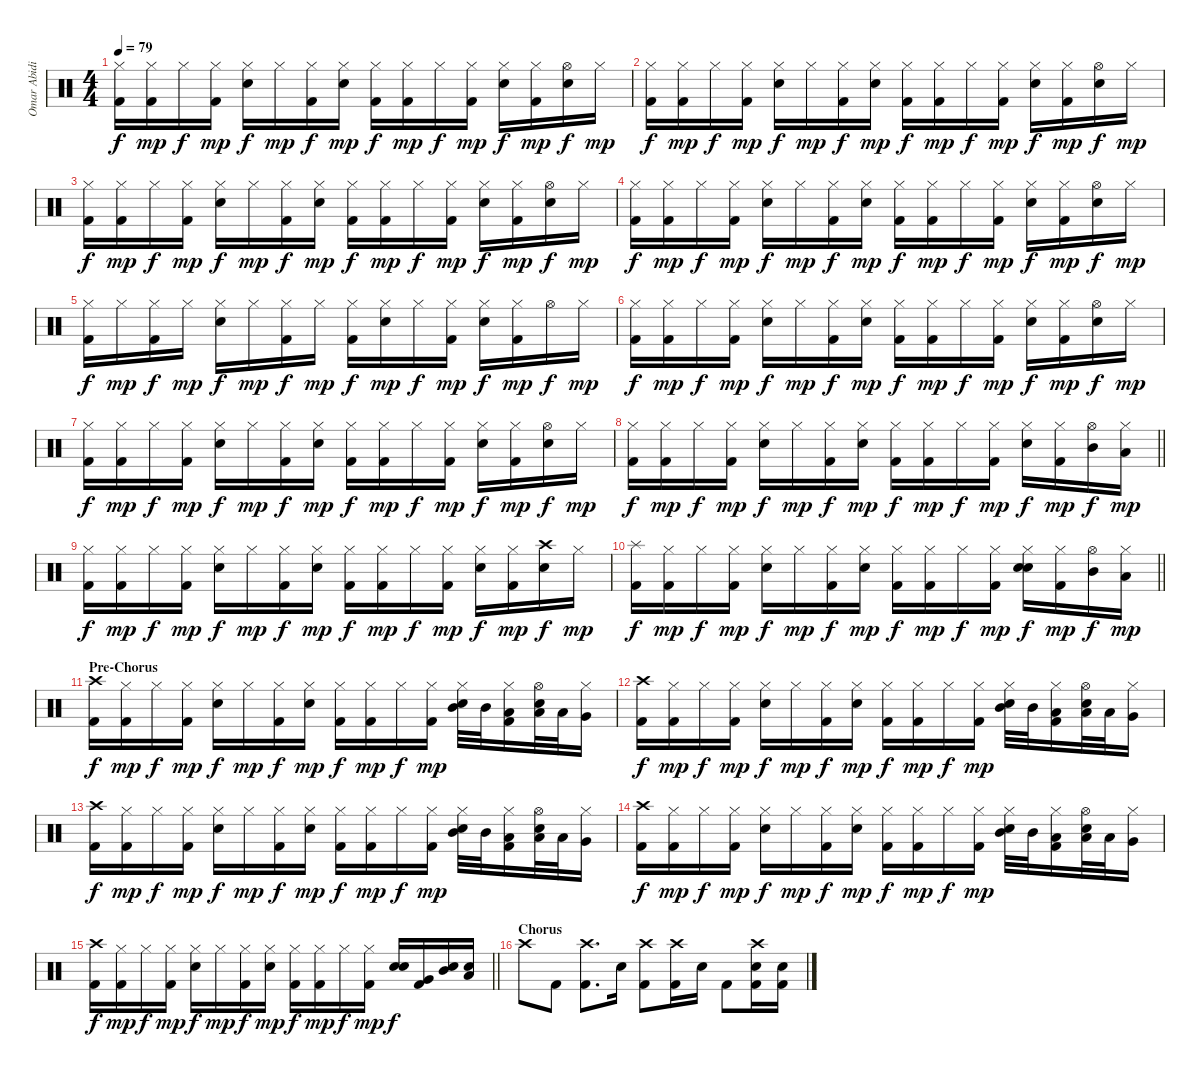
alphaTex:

\track ("Omar Abidi" "Omar Abidi") {instrument percussion}
\staff {score}
\articulation defaults
\ts (4 4)
\tempo 79
\clef neutral
\ks c
("Hi-Hat (closed)" "Kick (hit) 2").16{dy f} ("Hi-Hat (closed)" "Kick (hit) 2").16{dy mp} "Hi-Hat (closed)".16{dy f} ("Hi-Hat (closed)" "Kick (hit) 2").16{dy mp} ("Hi-Hat (closed)" "Electric Snare (hit)").16{dy f} "Hi-Hat (closed)".16{dy mp} ("Hi-Hat (closed)" "Kick (hit) 2").16{dy f} ("Hi-Hat (closed)" "Electric Snare (hit)").16{dy mp} ("Hi-Hat (closed)" "Kick (hit) 2").16{dy f} ("Hi-Hat (closed)" "Kick (hit) 2").16{dy mp} "Hi-Hat (closed)".16{dy f} ("Hi-Hat (closed)" "Kick (hit) 2").16{dy mp} ("Hi-Hat (closed)" "Electric Snare (hit)").16{dy f} ("Hi-Hat (closed)" "Kick (hit) 2").16{dy mp} ("Hi-Hat (open)" "Electric Snare (hit)").16{dy f} "Hi-Hat (closed)".16{dy mp} |
("Hi-Hat (closed)" "Kick (hit) 2").16{dy f} ("Hi-Hat (closed)" "Kick (hit) 2").16{dy mp} "Hi-Hat (closed)".16{dy f} ("Hi-Hat (closed)" "Kick (hit) 2").16{dy mp} ("Hi-Hat (closed)" "Electric Snare (hit)").16{dy f} "Hi-Hat (closed)".16{dy mp} ("Hi-Hat (closed)" "Kick (hit) 2").16{dy f} ("Hi-Hat (closed)" "Electric Snare (hit)").16{dy mp} ("Hi-Hat (closed)" "Kick (hit) 2").16{dy f} ("Hi-Hat (closed)" "Kick (hit) 2").16{dy mp} "Hi-Hat (closed)".16{dy f} ("Hi-Hat (closed)" "Kick (hit) 2").16{dy mp} ("Hi-Hat (closed)" "Electric Snare (hit)").16{dy f} ("Hi-Hat (closed)" "Kick (hit) 2").16{dy mp} ("Hi-Hat (open)" "Electric Snare (hit)").16{dy f} "Hi-Hat (closed)".16{dy mp} |
("Hi-Hat (closed)" "Kick (hit) 2").16{dy f} ("Hi-Hat (closed)" "Kick (hit) 2").16{dy mp} "Hi-Hat (closed)".16{dy f} ("Hi-Hat (closed)" "Kick (hit) 2").16{dy mp} ("Hi-Hat (closed)" "Electric Snare (hit)").16{dy f} "Hi-Hat (closed)".16{dy mp} ("Hi-Hat (closed)" "Kick (hit) 2").16{dy f} ("Hi-Hat (closed)" "Electric Snare (hit)").16{dy mp} ("Hi-Hat (closed)" "Kick (hit) 2").16{dy f} ("Hi-Hat (closed)" "Kick (hit) 2").16{dy mp} "Hi-Hat (closed)".16{dy f} ("Hi-Hat (closed)" "Kick (hit) 2").16{dy mp} ("Hi-Hat (closed)" "Electric Snare (hit)").16{dy f} ("Hi-Hat (closed)" "Kick (hit) 2").16{dy mp} ("Hi-Hat (open)" "Electric Snare (hit)").16{dy f} "Hi-Hat (closed)".16{dy mp} |
("Hi-Hat (closed)" "Kick (hit) 2").16{dy f} ("Hi-Hat (closed)" "Kick (hit) 2").16{dy mp} "Hi-Hat (closed)".16{dy f} ("Hi-Hat (closed)" "Kick (hit) 2").16{dy mp} ("Hi-Hat (closed)" "Electric Snare (hit)").16{dy f} "Hi-Hat (closed)".16{dy mp} ("Hi-Hat (closed)" "Kick (hit) 2").16{dy f} ("Hi-Hat (closed)" "Electric Snare (hit)").16{dy mp} ("Hi-Hat (closed)" "Kick (hit) 2").16{dy f} ("Hi-Hat (closed)" "Kick (hit) 2").16{dy mp} "Hi-Hat (closed)".16{dy f} ("Hi-Hat (closed)" "Kick (hit) 2").16{dy mp} ("Hi-Hat (closed)" "Electric Snare (hit)").16{dy f} ("Hi-Hat (closed)" "Kick (hit) 2").16{dy mp} ("Hi-Hat (open)" "Electric Snare (hit)").16{dy f} "Hi-Hat (closed)".16{dy mp} |
("Hi-Hat (closed)" "Kick (hit) 2").16{dy f} "Hi-Hat (closed)".16{dy mp} ("Hi-Hat (closed)" "Kick (hit) 2").16{dy f} "Hi-Hat (closed)".16{dy mp} ("Hi-Hat (closed)" "Electric Snare (hit)").16{dy f} "Hi-Hat (closed)".16{dy mp} ("Hi-Hat (closed)" "Kick (hit) 2").16{dy f} "Hi-Hat (closed)".16{dy mp} ("Hi-Hat (closed)" "Kick (hit) 2").16{dy f} ("Hi-Hat (closed)" "Electric Snare (hit)").16{dy mp} "Hi-Hat (closed)".16{dy f} ("Hi-Hat (closed)" "Kick (hit) 2").16{dy mp} ("Hi-Hat (closed)" "Electric Snare (hit)").16{dy f} ("Hi-Hat (closed)" "Kick (hit) 2").16{dy mp} "Hi-Hat (open)".16{dy f} "Hi-Hat (closed)".16{dy mp} |
("Hi-Hat (closed)" "Kick (hit) 2").16{dy f} ("Hi-Hat (closed)" "Kick (hit) 2").16{dy mp} "Hi-Hat (closed)".16{dy f} ("Hi-Hat (closed)" "Kick (hit) 2").16{dy mp} ("Hi-Hat (closed)" "Electric Snare (hit)").16{dy f} "Hi-Hat (closed)".16{dy mp} ("Hi-Hat (closed)" "Kick (hit) 2").16{dy f} ("Hi-Hat (closed)" "Electric Snare (hit)").16{dy mp} ("Hi-Hat (closed)" "Kick (hit) 2").16{dy f} ("Hi-Hat (closed)" "Kick (hit) 2").16{dy mp} "Hi-Hat (closed)".16{dy f} ("Hi-Hat (closed)" "Kick (hit) 2").16{dy mp} ("Hi-Hat (closed)" "Electric Snare (hit)").16{dy f} ("Hi-Hat (closed)" "Kick (hit) 2").16{dy mp} ("Hi-Hat (open)" "Electric Snare (hit)").16{dy f} "Hi-Hat (closed)".16{dy mp} |
("Hi-Hat (closed)" "Kick (hit) 2").16{dy f} ("Hi-Hat (closed)" "Kick (hit) 2").16{dy mp} "Hi-Hat (closed)".16{dy f} ("Hi-Hat (closed)" "Kick (hit) 2").16{dy mp} ("Hi-Hat (closed)" "Electric Snare (hit)").16{dy f} "Hi-Hat (closed)".16{dy mp} ("Hi-Hat (closed)" "Kick (hit) 2").16{dy f} ("Hi-Hat (closed)" "Electric Snare (hit)").16{dy mp} ("Hi-Hat (closed)" "Kick (hit) 2").16{dy f} ("Hi-Hat (closed)" "Kick (hit) 2").16{dy mp} "Hi-Hat (closed)".16{dy f} ("Hi-Hat (closed)" "Kick (hit) 2").16{dy mp} ("Hi-Hat (closed)" "Electric Snare (hit)").16{dy f} ("Hi-Hat (closed)" "Kick (hit) 2").16{dy mp} ("Hi-Hat (open)" "Electric Snare (hit)").16{dy f} "Hi-Hat (closed)".16{dy mp} |
\barLineRight lightlight
("Hi-Hat (closed)" "Kick (hit) 2").16{dy f} ("Hi-Hat (closed)" "Kick (hit) 2").16{dy mp} "Hi-Hat (closed)".16{dy f} ("Hi-Hat (closed)" "Kick (hit) 2").16{dy mp} ("Hi-Hat (closed)" "Electric Snare (hit)").16{dy f} "Hi-Hat (closed)".16{dy mp} ("Hi-Hat (closed)" "Kick (hit) 2").16{dy f} ("Hi-Hat (closed)" "Electric Snare (hit)").16{dy mp} ("Hi-Hat (closed)" "Kick (hit) 2").16{dy f} ("Hi-Hat (closed)" "Kick (hit) 2").16{dy mp} "Hi-Hat (closed)".16{dy f} ("Hi-Hat (closed)" "Kick (hit) 2").16{dy mp} ("Hi-Hat (closed)" "Electric Snare (hit)").16{dy f} ("Hi-Hat (closed)" "Kick (hit) 2").16{dy mp} ("Hi-Hat (open)" "Mid Tom (hit)").16{dy f} ("Hi-Hat (closed)" "Low Tom (hit)").16{dy mp} |
("Hi-Hat (closed)" "Kick (hit) 2").16{dy f} ("Hi-Hat (closed)" "Kick (hit) 2").16{dy mp} "Hi-Hat (closed)".16{dy f} ("Hi-Hat (closed)" "Kick (hit) 2").16{dy mp} ("Hi-Hat (closed)" "Electric Snare (hit)").16{dy f} "Hi-Hat (closed)".16{dy mp} ("Hi-Hat (closed)" "Kick (hit) 2").16{dy f} ("Hi-Hat (closed)" "Electric Snare (hit)").16{dy mp} ("Hi-Hat (closed)" "Kick (hit) 2").16{dy f} ("Hi-Hat (closed)" "Kick (hit) 2").16{dy mp} "Hi-Hat (closed)".16{dy f} ("Hi-Hat (closed)" "Kick (hit) 2").16{dy mp} ("Hi-Hat (closed)" "Electric Snare (hit)").16{dy f} ("Hi-Hat (closed)" "Kick (hit) 2").16{dy mp} ("Crash high (hit)" "Electric Snare (hit)").16{dy f} "Hi-Hat (closed)".16{dy mp} |
\barLineRight lightlight
("Splash (hit)" "Kick (hit) 2").16{dy f} ("Hi-Hat (closed)" "Kick (hit) 2").16{dy mp} "Hi-Hat (closed)".16{dy f} ("Hi-Hat (closed)" "Kick (hit) 2").16{dy mp} ("Hi-Hat (closed)" "Electric Snare (hit)").16{dy f} "Hi-Hat (closed)".16{dy mp} ("Hi-Hat (closed)" "Kick (hit) 2").16{dy f} ("Hi-Hat (closed)" "Electric Snare (hit)").16{dy mp} ("Hi-Hat (closed)" "Kick (hit) 2").16{dy f} ("Hi-Hat (closed)" "Kick (hit) 2").16{dy mp} "Hi-Hat (closed)".16{dy f} ("Hi-Hat (closed)" "Kick (hit) 2").16{dy mp} ("Hi-Hat (closed)" "Electric Snare (hit)" "Electric Snare (hit)").16{bd 240 dy f} ("Hi-Hat (closed)" "Kick (hit) 2").16{dy mp} ("Hi-Hat (open)" "Mid Tom (hit)").16{dy f} ("Hi-Hat (closed)" "Low Tom (hit)").16{dy mp} |
\section ("" "Pre-Chorus")
("Crash high (hit)" "Kick (hit) 2").16{dy f} ("Hi-Hat (closed)" "Kick (hit) 2").16{dy mp} "Hi-Hat (closed)".16{dy f} ("Hi-Hat (closed)" "Kick (hit) 2").16{dy mp} ("Hi-Hat (closed)" "Electric Snare (hit)").16{dy f} "Hi-Hat (closed)".16{dy mp} ("Hi-Hat (closed)" "Kick (hit) 2").16{dy f} ("Hi-Hat (closed)" "Electric Snare (hit)").16{dy mp} ("Hi-Hat (closed)" "Kick (hit) 2").16{dy f} ("Hi-Hat (closed)" "Kick (hit) 2").16{dy mp} "Hi-Hat (closed)".16{dy f} ("Hi-Hat (closed)" "Kick (hit) 2").16{dy mp} ("Hi-Hat (closed)" "Electric Snare (hit)" "Mid Tom (hit)").32 "Mid Tom (hit)".32 ("Hi-Hat (closed)" "Low Tom (hit)" "Kick (hit) 2").16 ("Hi-Hat (open)" "Electric Snare (hit)" "Low Tom (hit)").32 "Low Tom (hit)".32 ("Hi-Hat (closed)" "Very Low Tom (hit)").16 |
("Crash high (hit)" "Kick (hit) 2").16{dy f} ("Hi-Hat (closed)" "Kick (hit) 2").16{dy mp} "Hi-Hat (closed)".16{dy f} ("Hi-Hat (closed)" "Kick (hit) 2").16{dy mp} ("Hi-Hat (closed)" "Electric Snare (hit)").16{dy f} "Hi-Hat (closed)".16{dy mp} ("Hi-Hat (closed)" "Kick (hit) 2").16{dy f} ("Hi-Hat (closed)" "Electric Snare (hit)").16{dy mp} ("Hi-Hat (closed)" "Kick (hit) 2").16{dy f} ("Hi-Hat (closed)" "Kick (hit) 2").16{dy mp} "Hi-Hat (closed)".16{dy f} ("Hi-Hat (closed)" "Kick (hit) 2").16{dy mp} ("Hi-Hat (closed)" "Electric Snare (hit)" "Mid Tom (hit)").32 "Mid Tom (hit)".32 ("Hi-Hat (closed)" "Low Tom (hit)" "Kick (hit) 2").16 ("Hi-Hat (open)" "Electric Snare (hit)" "Low Tom (hit)").32 "Low Tom (hit)".32 ("Hi-Hat (closed)" "Very Low Tom (hit)").16 |
("Crash high (hit)" "Kick (hit) 2").16{dy f} ("Hi-Hat (closed)" "Kick (hit) 2").16{dy mp} "Hi-Hat (closed)".16{dy f} ("Hi-Hat (closed)" "Kick (hit) 2").16{dy mp} ("Hi-Hat (closed)" "Electric Snare (hit)").16{dy f} "Hi-Hat (closed)".16{dy mp} ("Hi-Hat (closed)" "Kick (hit) 2").16{dy f} ("Hi-Hat (closed)" "Electric Snare (hit)").16{dy mp} ("Hi-Hat (closed)" "Kick (hit) 2").16{dy f} ("Hi-Hat (closed)" "Kick (hit) 2").16{dy mp} "Hi-Hat (closed)".16{dy f} ("Hi-Hat (closed)" "Kick (hit) 2").16{dy mp} ("Hi-Hat (closed)" "Electric Snare (hit)" "Mid Tom (hit)").32 "Mid Tom (hit)".32 ("Hi-Hat (closed)" "Low Tom (hit)" "Kick (hit) 2").16 ("Hi-Hat (open)" "Electric Snare (hit)" "Low Tom (hit)").32 "Low Tom (hit)".32 ("Hi-Hat (closed)" "Very Low Tom (hit)").16 |
("Crash high (hit)" "Kick (hit) 2").16{dy f} ("Hi-Hat (closed)" "Kick (hit) 2").16{dy mp} "Hi-Hat (closed)".16{dy f} ("Hi-Hat (closed)" "Kick (hit) 2").16{dy mp} ("Hi-Hat (closed)" "Electric Snare (hit)").16{dy f} "Hi-Hat (closed)".16{dy mp} ("Hi-Hat (closed)" "Kick (hit) 2").16{dy f} ("Hi-Hat (closed)" "Electric Snare (hit)").16{dy mp} ("Hi-Hat (closed)" "Kick (hit) 2").16{dy f} ("Hi-Hat (closed)" "Kick (hit) 2").16{dy mp} "Hi-Hat (closed)".16{dy f} ("Hi-Hat (closed)" "Kick (hit) 2").16{dy mp} ("Hi-Hat (closed)" "Electric Snare (hit)" "Mid Tom (hit)").32 "Mid Tom (hit)".32 ("Hi-Hat (closed)" "Low Tom (hit)" "Kick (hit) 2").16 ("Hi-Hat (open)" "Electric Snare (hit)" "Low Tom (hit)").32 "Low Tom (hit)".32 ("Hi-Hat (closed)" "Very Low Tom (hit)").16 |
\barLineRight lightlight
("Crash high (hit)" "Kick (hit) 2").16{dy f} ("Hi-Hat (closed)" "Kick (hit) 2").16{dy mp} "Hi-Hat (closed)".16{dy f} ("Hi-Hat (closed)" "Kick (hit) 2").16{dy mp} ("Hi-Hat (closed)" "Electric Snare (hit)").16{dy f} "Hi-Hat (closed)".16{dy mp} ("Hi-Hat (closed)" "Kick (hit) 2").16{dy f} ("Hi-Hat (closed)" "Electric Snare (hit)").16{dy mp} ("Hi-Hat (closed)" "Kick (hit) 2").16{dy f} ("Hi-Hat (closed)" "Kick (hit) 2").16{dy mp} "Hi-Hat (closed)".16{dy f} ("Hi-Hat (closed)" "Kick (hit) 2").16{dy mp} ("Electric Snare (hit)" "Electric Snare (hit)").16{bd 240 dy f} ("Very Low Tom (hit)" "Kick (hit) 2").16 ("Mid Tom (hit)" "Electric Snare (hit)").16 ("Low Tom (hit)" "Electric Snare (hit)").16 |
\section ("" "Chorus")
"Crash high (hit)".8 "Kick (hit) 2".8 ("Crash high (hit)" "Kick (hit) 2").8{d} "Electric Snare (hit)".16 ("Crash high (hit)" "Kick (hit) 2").8 ("Crash high (hit)" "Kick (hit) 2").16 "Electric Snare (hit)".16 "Kick (hit) 2".8 ("Crash high (hit)" "Electric Snare (hit)" "Kick (hit) 2").16 ("Electric Snare (hit)" "Kick (hit) 2").16
